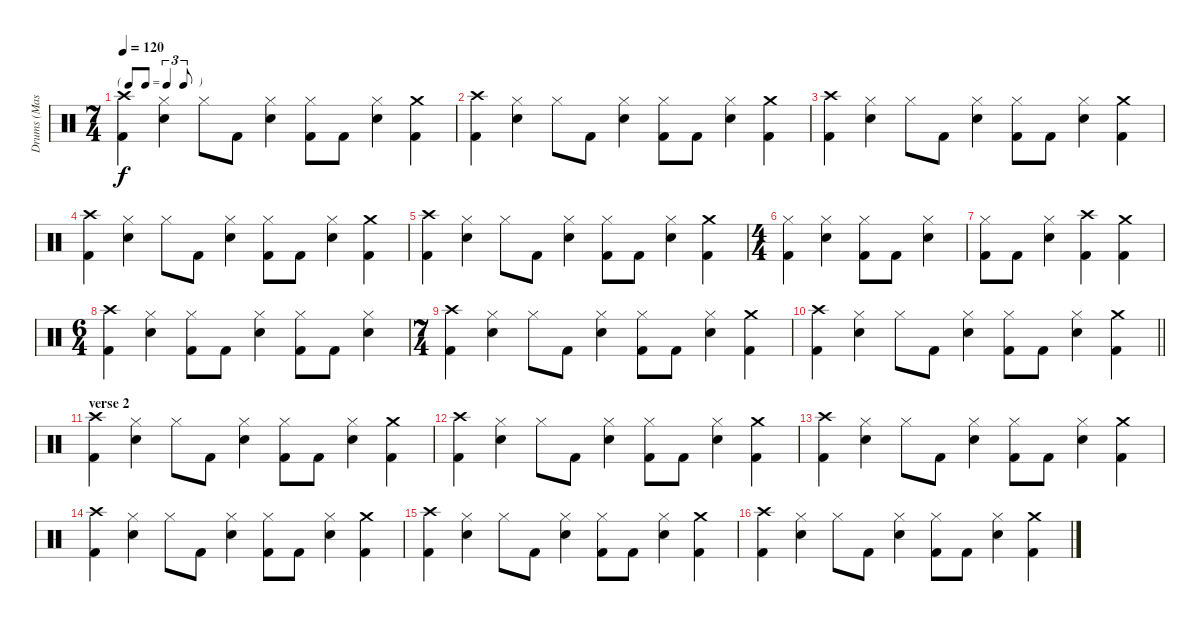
\track ("Drums (Mason)" "Drums (Mas") {instrument percussion}
\staff {score}
\articulation defaults
\ts (7 4)
\tf triplet8th
\tempo 120
\clef neutral
\ks c
("Crash high (hit)" "Kick (hit) 2").4{dy f} ("Hi-Hat (closed)" "Electric Snare (hit)").4 "Hi-Hat (closed)".8 "Kick (hit) 2".8 ("Hi-Hat (closed)" "Electric Snare (hit)").4 ("Hi-Hat (closed)" "Kick (hit) 2").8 "Kick (hit) 2".8 ("Hi-Hat (closed)" "Electric Snare (hit)").4 ("Crash medium (hit)" "Kick (hit) 2").4 |
("Crash high (hit)" "Kick (hit) 2").4 ("Hi-Hat (closed)" "Electric Snare (hit)").4 "Hi-Hat (closed)".8 "Kick (hit) 2".8 ("Hi-Hat (closed)" "Electric Snare (hit)").4 ("Hi-Hat (closed)" "Kick (hit) 2").8 "Kick (hit) 2".8 ("Hi-Hat (closed)" "Electric Snare (hit)").4 ("Crash medium (hit)" "Kick (hit) 2").4 |
("Crash high (hit)" "Kick (hit) 2").4 ("Hi-Hat (closed)" "Electric Snare (hit)").4 "Hi-Hat (closed)".8 "Kick (hit) 2".8 ("Hi-Hat (closed)" "Electric Snare (hit)").4 ("Hi-Hat (closed)" "Kick (hit) 2").8 "Kick (hit) 2".8 ("Hi-Hat (closed)" "Electric Snare (hit)").4 ("Crash medium (hit)" "Kick (hit) 2").4 |
("Crash high (hit)" "Kick (hit) 2").4 ("Hi-Hat (closed)" "Electric Snare (hit)").4 "Hi-Hat (closed)".8 "Kick (hit) 2".8 ("Hi-Hat (closed)" "Electric Snare (hit)").4 ("Hi-Hat (closed)" "Kick (hit) 2").8 "Kick (hit) 2".8 ("Hi-Hat (closed)" "Electric Snare (hit)").4 ("Crash medium (hit)" "Kick (hit) 2").4 |
("Crash high (hit)" "Kick (hit) 2").4 ("Hi-Hat (closed)" "Electric Snare (hit)").4 "Hi-Hat (closed)".8 "Kick (hit) 2".8 ("Hi-Hat (closed)" "Electric Snare (hit)").4 ("Hi-Hat (closed)" "Kick (hit) 2").8 "Kick (hit) 2".8 ("Hi-Hat (closed)" "Electric Snare (hit)").4 ("Crash medium (hit)" "Kick (hit) 2").4 |
\ts (4 4)
("Hi-Hat (closed)" "Kick (hit) 2").4 ("Hi-Hat (closed)" "Electric Snare (hit)").4 ("Hi-Hat (closed)" "Kick (hit) 2").8 "Kick (hit) 2".8 ("Hi-Hat (closed)" "Electric Snare (hit)").4 |
("Hi-Hat (closed)" "Kick (hit) 2").8 "Kick (hit) 2".8 ("Hi-Hat (closed)" "Electric Snare (hit)").4 ("Crash high (hit)" "Kick (hit) 2").4 ("Crash medium (hit)" "Kick (hit) 2").4 |
\ts (6 4)
("Crash high (hit)" "Kick (hit) 2").4 ("Hi-Hat (closed)" "Electric Snare (hit)").4 ("Hi-Hat (closed)" "Kick (hit) 2").8 "Kick (hit) 2".8 ("Hi-Hat (closed)" "Electric Snare (hit)").4 ("Hi-Hat (closed)" "Kick (hit) 2").8 "Kick (hit) 2".8 ("Hi-Hat (closed)" "Electric Snare (hit)").4 |
\ts (7 4)
("Crash high (hit)" "Kick (hit) 2").4 ("Hi-Hat (closed)" "Electric Snare (hit)").4 "Hi-Hat (closed)".8 "Kick (hit) 2".8 ("Hi-Hat (closed)" "Electric Snare (hit)").4 ("Hi-Hat (closed)" "Kick (hit) 2").8 "Kick (hit) 2".8 ("Hi-Hat (closed)" "Electric Snare (hit)").4 ("Crash medium (hit)" "Kick (hit) 2").4 |
\barLineRight lightlight
("Crash high (hit)" "Kick (hit) 2").4 ("Hi-Hat (closed)" "Electric Snare (hit)").4 "Hi-Hat (closed)".8 "Kick (hit) 2".8 ("Hi-Hat (closed)" "Electric Snare (hit)").4 ("Hi-Hat (closed)" "Kick (hit) 2").8 "Kick (hit) 2".8 ("Hi-Hat (closed)" "Electric Snare (hit)").4 ("Crash medium (hit)" "Kick (hit) 2").4 |
\section ("" "verse 2")
("Crash high (hit)" "Kick (hit) 2").4 ("Hi-Hat (closed)" "Electric Snare (hit)").4 "Hi-Hat (closed)".8 "Kick (hit) 2".8 ("Hi-Hat (closed)" "Electric Snare (hit)").4 ("Hi-Hat (closed)" "Kick (hit) 2").8 "Kick (hit) 2".8 ("Hi-Hat (closed)" "Electric Snare (hit)").4 ("Crash medium (hit)" "Kick (hit) 2").4 |
("Crash high (hit)" "Kick (hit) 2").4 ("Hi-Hat (closed)" "Electric Snare (hit)").4 "Hi-Hat (closed)".8 "Kick (hit) 2".8 ("Hi-Hat (closed)" "Electric Snare (hit)").4 ("Hi-Hat (closed)" "Kick (hit) 2").8 "Kick (hit) 2".8 ("Hi-Hat (closed)" "Electric Snare (hit)").4 ("Crash medium (hit)" "Kick (hit) 2").4 |
("Crash high (hit)" "Kick (hit) 2").4 ("Hi-Hat (closed)" "Electric Snare (hit)").4 "Hi-Hat (closed)".8 "Kick (hit) 2".8 ("Hi-Hat (closed)" "Electric Snare (hit)").4 ("Hi-Hat (closed)" "Kick (hit) 2").8 "Kick (hit) 2".8 ("Hi-Hat (closed)" "Electric Snare (hit)").4 ("Crash medium (hit)" "Kick (hit) 2").4 |
("Crash high (hit)" "Kick (hit) 2").4 ("Hi-Hat (closed)" "Electric Snare (hit)").4 "Hi-Hat (closed)".8 "Kick (hit) 2".8 ("Hi-Hat (closed)" "Electric Snare (hit)").4 ("Hi-Hat (closed)" "Kick (hit) 2").8 "Kick (hit) 2".8 ("Hi-Hat (closed)" "Electric Snare (hit)").4 ("Crash medium (hit)" "Kick (hit) 2").4 |
("Crash high (hit)" "Kick (hit) 2").4 ("Hi-Hat (closed)" "Electric Snare (hit)").4 "Hi-Hat (closed)".8 "Kick (hit) 2".8 ("Hi-Hat (closed)" "Electric Snare (hit)").4 ("Hi-Hat (closed)" "Kick (hit) 2").8 "Kick (hit) 2".8 ("Hi-Hat (closed)" "Electric Snare (hit)").4 ("Crash medium (hit)" "Kick (hit) 2").4 |
("Crash high (hit)" "Kick (hit) 2").4 ("Hi-Hat (closed)" "Electric Snare (hit)").4 "Hi-Hat (closed)".8 "Kick (hit) 2".8 ("Hi-Hat (closed)" "Electric Snare (hit)").4 ("Hi-Hat (closed)" "Kick (hit) 2").8 "Kick (hit) 2".8 ("Hi-Hat (closed)" "Electric Snare (hit)").4 ("Crash medium (hit)" "Kick (hit) 2").4
